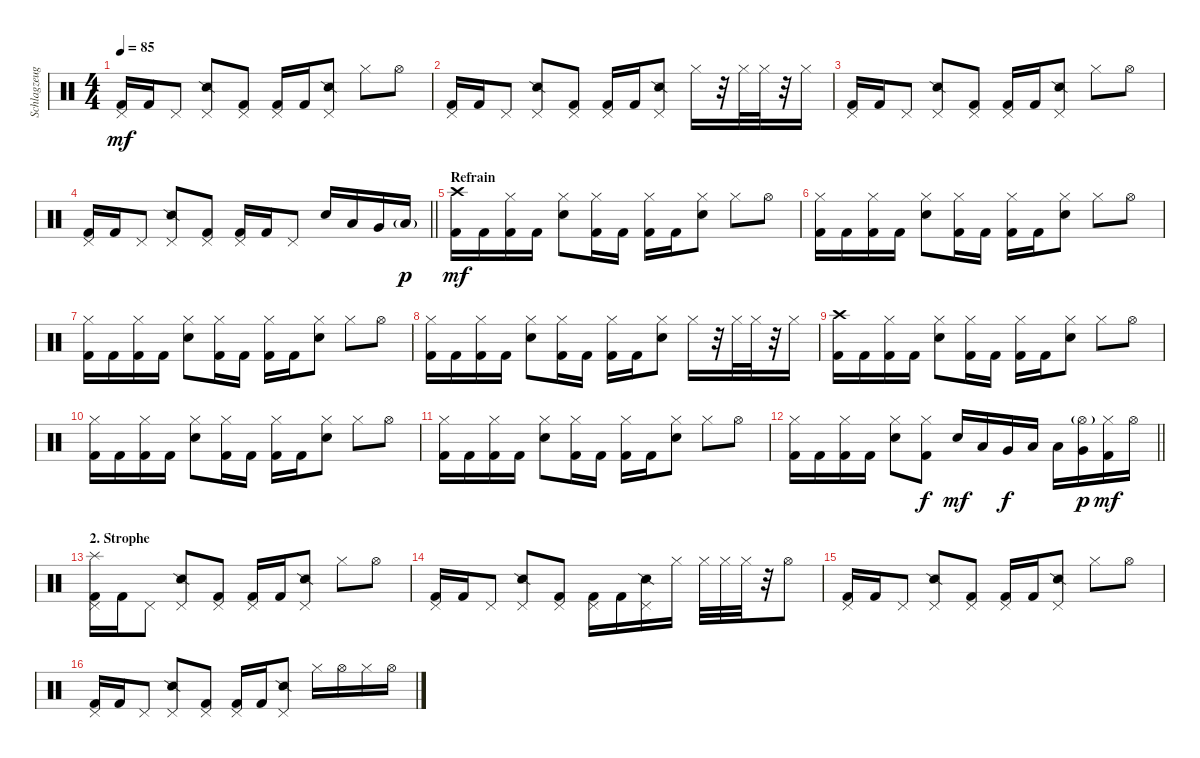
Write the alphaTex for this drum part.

\track ("Schlagzeug" "Schlagzeug") {instrument percussion}
\staff {score}
\articulation defaults
\ts (4 4)
\tempo 85
\clef neutral
\ks c
("Pedal Hi-Hat (hit)" "Kick (hit) 2").16{dy mf} "Kick (hit) 2".16 "Pedal Hi-Hat (hit)".8 ("Pedal Hi-Hat (hit)" "Snare (side stick) 2").8 ("Pedal Hi-Hat (hit)" "Kick (hit) 2").8 ("Pedal Hi-Hat (hit)" "Kick (hit) 2").16 "Kick (hit) 2".16 ("Pedal Hi-Hat (hit)" "Snare (side stick) 2").8 "Hi-Hat (closed)".8 "Hi-Hat (open)".8 |
("Pedal Hi-Hat (hit)" "Kick (hit) 2").16 "Kick (hit) 2".16 "Pedal Hi-Hat (hit)".8 ("Pedal Hi-Hat (hit)" "Snare (side stick) 2").8 ("Pedal Hi-Hat (hit)" "Kick (hit) 2").8 ("Pedal Hi-Hat (hit)" "Kick (hit) 2").16 "Kick (hit) 2".16 ("Pedal Hi-Hat (hit)" "Snare (side stick) 2").8 "Hi-Hat (closed)".16 r.32 "Hi-Hat (closed)".32 "Hi-Hat (closed)".32 r.32 "Hi-Hat (closed)".16 |
("Pedal Hi-Hat (hit)" "Kick (hit) 2").16 "Kick (hit) 2".16 "Pedal Hi-Hat (hit)".8 ("Pedal Hi-Hat (hit)" "Snare (side stick) 2").8 ("Pedal Hi-Hat (hit)" "Kick (hit) 2").8 ("Pedal Hi-Hat (hit)" "Kick (hit) 2").16 "Kick (hit) 2".16 ("Pedal Hi-Hat (hit)" "Snare (side stick) 2").8 "Hi-Hat (closed)".8 "Hi-Hat (open)".8 |
\barLineRight lightlight
("Pedal Hi-Hat (hit)" "Kick (hit) 2").16 "Kick (hit) 2".16 "Pedal Hi-Hat (hit)".8 ("Pedal Hi-Hat (hit)" "Snare (side stick) 2").8 ("Pedal Hi-Hat (hit)" "Kick (hit) 2").8 ("Pedal Hi-Hat (hit)" "Kick (hit) 2").16 "Kick (hit) 2".16 "Pedal Hi-Hat (hit)".8 "Snare (hit) 2".16 "Low Tom (hit)".16 "Very Low Tom (hit)".16 "Low Floor Tom (hit)"{g}.16{dy p} |
\section ("" "Refrain")
("Crash high (hit)" "Kick (hit) 2").16{dy mf} "Kick (hit) 2".16 ("Hi-Hat (closed)" "Kick (hit) 2").16 "Kick (hit) 2".16 ("Hi-Hat (closed)" "Snare (hit) 2").8 ("Hi-Hat (closed)" "Kick (hit) 2").16 "Kick (hit) 2".16 ("Hi-Hat (closed)" "Kick (hit) 2").16 "Kick (hit) 2".16 ("Hi-Hat (closed)" "Snare (hit) 2").8 "Hi-Hat (closed)".8 "Hi-Hat (open)".8 |
("Hi-Hat (closed)" "Kick (hit) 2").16 "Kick (hit) 2".16 ("Hi-Hat (closed)" "Kick (hit) 2").16 "Kick (hit) 2".16 ("Hi-Hat (closed)" "Snare (hit) 2").8 ("Hi-Hat (closed)" "Kick (hit) 2").16 "Kick (hit) 2".16 ("Hi-Hat (closed)" "Kick (hit) 2").16 "Kick (hit) 2".16 ("Hi-Hat (closed)" "Snare (hit) 2").8 "Hi-Hat (closed)".8 "Hi-Hat (open)".8 |
("Hi-Hat (closed)" "Kick (hit) 2").16 "Kick (hit) 2".16 ("Hi-Hat (closed)" "Kick (hit) 2").16 "Kick (hit) 2".16 ("Hi-Hat (closed)" "Snare (hit) 2").8 ("Hi-Hat (closed)" "Kick (hit) 2").16 "Kick (hit) 2".16 ("Hi-Hat (closed)" "Kick (hit) 2").16 "Kick (hit) 2".16 ("Hi-Hat (closed)" "Snare (hit) 2").8 "Hi-Hat (closed)".8 "Hi-Hat (open)".8 |
("Hi-Hat (closed)" "Kick (hit) 2").16 "Kick (hit) 2".16 ("Hi-Hat (closed)" "Kick (hit) 2").16 "Kick (hit) 2".16 ("Hi-Hat (closed)" "Snare (hit) 2").8 ("Hi-Hat (closed)" "Kick (hit) 2").16 "Kick (hit) 2".16 ("Hi-Hat (closed)" "Kick (hit) 2").16 "Kick (hit) 2".16 ("Hi-Hat (closed)" "Snare (hit) 2").8 "Hi-Hat (closed)".16 r.32 "Hi-Hat (closed)".32 "Hi-Hat (closed)".32 r.32 "Hi-Hat (closed)".16 |
("Crash high (hit)" "Kick (hit) 2").16 "Kick (hit) 2".16 ("Hi-Hat (closed)" "Kick (hit) 2").16 "Kick (hit) 2".16 ("Hi-Hat (closed)" "Snare (hit) 2").8 ("Hi-Hat (closed)" "Kick (hit) 2").16 "Kick (hit) 2".16 ("Hi-Hat (closed)" "Kick (hit) 2").16 "Kick (hit) 2".16 ("Hi-Hat (closed)" "Snare (hit) 2").8 "Hi-Hat (closed)".8 "Hi-Hat (open)".8 |
("Hi-Hat (closed)" "Kick (hit) 2").16 "Kick (hit) 2".16 ("Hi-Hat (closed)" "Kick (hit) 2").16 "Kick (hit) 2".16 ("Hi-Hat (closed)" "Snare (hit) 2").8 ("Hi-Hat (closed)" "Kick (hit) 2").16 "Kick (hit) 2".16 ("Hi-Hat (closed)" "Kick (hit) 2").16 "Kick (hit) 2".16 ("Hi-Hat (closed)" "Snare (hit) 2").8 "Hi-Hat (closed)".8 "Hi-Hat (open)".8 |
("Hi-Hat (closed)" "Kick (hit) 2").16 "Kick (hit) 2".16 ("Hi-Hat (closed)" "Kick (hit) 2").16 "Kick (hit) 2".16 ("Hi-Hat (closed)" "Snare (hit) 2").8 ("Hi-Hat (closed)" "Kick (hit) 2").16 "Kick (hit) 2".16 ("Hi-Hat (closed)" "Kick (hit) 2").16 "Kick (hit) 2".16 ("Hi-Hat (closed)" "Snare (hit) 2").8 "Hi-Hat (closed)".8 "Hi-Hat (open)".8 |
\barLineRight lightlight
("Hi-Hat (closed)" "Kick (hit) 2").16 "Kick (hit) 2".16 ("Hi-Hat (closed)" "Kick (hit) 2").16 "Kick (hit) 2".16 ("Hi-Hat (closed)" "Snare (hit) 2").8 ("Hi-Hat (closed)" "Kick (hit) 2").8{dy f} "Snare (hit) 2".16{dy mf} "Low Tom (hit)".16 "Very Low Tom (hit)".16{dy f} "Low Floor Tom (hit)".16 "Low Tom (hit)".16 ("Hi-Hat (open)"{g} "Very Low Tom (hit)").16{dy p} ("Hi-Hat (closed)" "Kick (hit) 2").16{dy mf} "Hi-Hat (open)".16 |
\section ("" "2. Strophe")
("Splash (hit)" "Pedal Hi-Hat (hit)" "Kick (hit) 2").16 "Kick (hit) 2".16 "Pedal Hi-Hat (hit)".8 ("Pedal Hi-Hat (hit)" "Snare (side stick) 2").8 ("Pedal Hi-Hat (hit)" "Kick (hit) 2").8 ("Pedal Hi-Hat (hit)" "Kick (hit) 2").16 "Kick (hit) 2".16 ("Pedal Hi-Hat (hit)" "Snare (side stick) 2").8 "Hi-Hat (closed)".8 "Hi-Hat (open)".8 |
("Pedal Hi-Hat (hit)" "Kick (hit) 2").16 "Kick (hit) 2".16 "Pedal Hi-Hat (hit)".8 ("Pedal Hi-Hat (hit)" "Snare (side stick) 2").8 ("Pedal Hi-Hat (hit)" "Kick (hit) 2").8 ("Pedal Hi-Hat (hit)" "Kick (hit) 2").16 "Kick (hit) 2".16 ("Pedal Hi-Hat (hit)" "Snare (side stick) 2").16 "Hi-Hat (closed)".16 "Hi-Hat (closed)".32 "Hi-Hat (closed)".32 "Hi-Hat (closed)".32 r.32 "Hi-Hat (open)".8 |
("Pedal Hi-Hat (hit)" "Kick (hit) 2").16 "Kick (hit) 2".16 "Pedal Hi-Hat (hit)".8 ("Pedal Hi-Hat (hit)" "Snare (side stick) 2").8 ("Pedal Hi-Hat (hit)" "Kick (hit) 2").8 ("Pedal Hi-Hat (hit)" "Kick (hit) 2").16 "Kick (hit) 2".16 ("Pedal Hi-Hat (hit)" "Snare (side stick) 2").8 "Hi-Hat (closed)".8 "Hi-Hat (open)".8 |
("Pedal Hi-Hat (hit)" "Kick (hit) 2").16 "Kick (hit) 2".16 "Pedal Hi-Hat (hit)".8 ("Pedal Hi-Hat (hit)" "Snare (side stick) 2").8 ("Pedal Hi-Hat (hit)" "Kick (hit) 2").8 ("Pedal Hi-Hat (hit)" "Kick (hit) 2").16 "Kick (hit) 2".16 ("Pedal Hi-Hat (hit)" "Snare (side stick) 2").8 "Hi-Hat (closed)".16 "Hi-Hat (open)".16 "Hi-Hat (closed)".16 "Hi-Hat (open)".16
